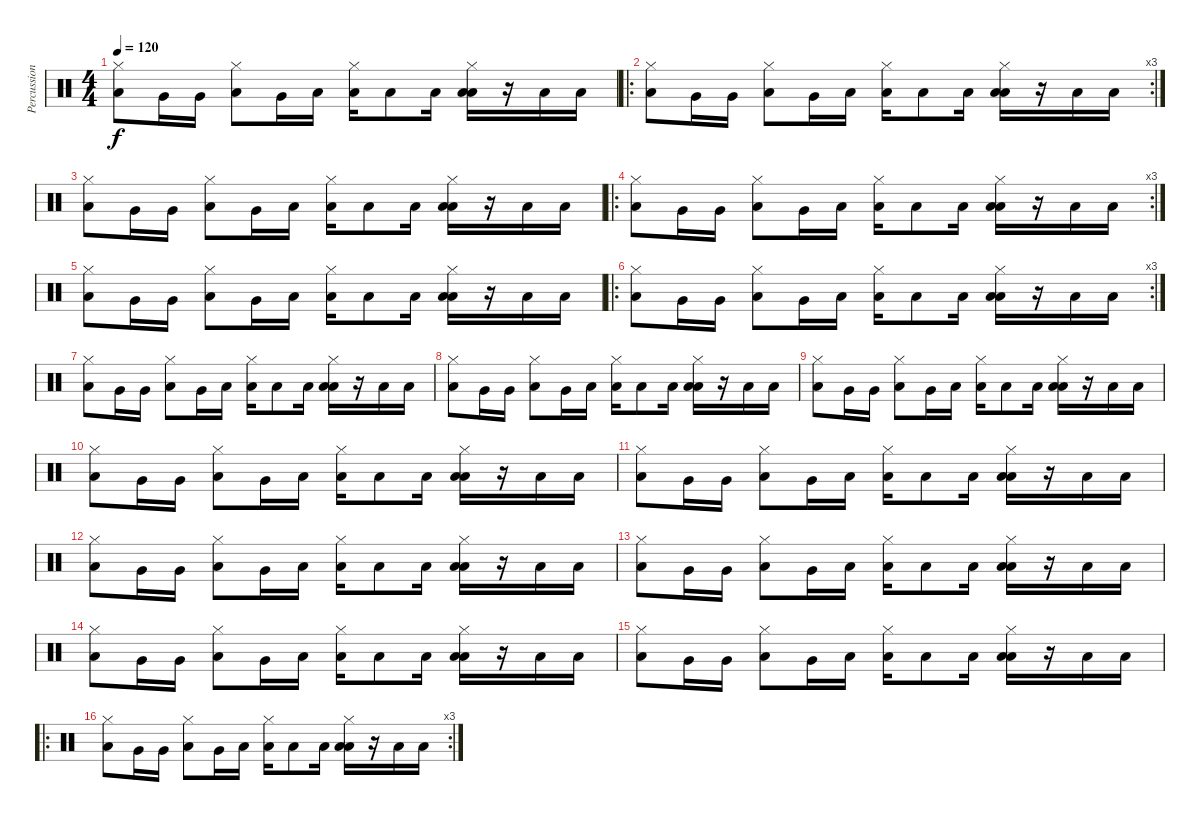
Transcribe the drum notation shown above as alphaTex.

\track ("Percussion" "Percussion") {instrument percussion}
\staff {score}
\articulation defaults
\ts (4 4)
\tempo 120
\clef neutral
\ks c
("Hi-Hat (closed)" "Low Floor Tom (hit)").8{dy f} "Very Low Tom (hit)".16 "Very Low Tom (hit)".16 ("Hi-Hat (closed)" "Low Floor Tom (hit)").8 "Very Low Tom (hit)".16 "Low Tom (hit)".16 ("Hi-Hat (closed)" "Low Floor Tom (hit)").16 "Low Tom (hit)".8 "Low Tom (hit)".16 ("Low Tom (hit)" "Hi-Hat (closed)" "Low Floor Tom (hit)").16 r.16 "Low Tom (hit)".16 "Low Tom (hit)".16 |
\ro
\rc 3
("Hi-Hat (closed)" "Low Floor Tom (hit)").8 "Very Low Tom (hit)".16 "Very Low Tom (hit)".16 ("Hi-Hat (closed)" "Low Floor Tom (hit)").8 "Very Low Tom (hit)".16 "Low Tom (hit)".16 ("Hi-Hat (closed)" "Low Floor Tom (hit)").16 "Low Tom (hit)".8 "Low Tom (hit)".16 ("Low Tom (hit)" "Hi-Hat (closed)" "Low Floor Tom (hit)").16 r.16 "Low Tom (hit)".16 "Low Tom (hit)".16 |
("Hi-Hat (closed)" "Low Floor Tom (hit)").8 "Very Low Tom (hit)".16 "Very Low Tom (hit)".16 ("Hi-Hat (closed)" "Low Floor Tom (hit)").8 "Very Low Tom (hit)".16 "Low Tom (hit)".16 ("Hi-Hat (closed)" "Low Floor Tom (hit)").16 "Low Tom (hit)".8 "Low Tom (hit)".16 ("Low Tom (hit)" "Hi-Hat (closed)" "Low Floor Tom (hit)").16 r.16 "Low Tom (hit)".16 "Low Tom (hit)".16 |
\ro
\rc 3
("Hi-Hat (closed)" "Low Floor Tom (hit)").8 "Very Low Tom (hit)".16 "Very Low Tom (hit)".16 ("Hi-Hat (closed)" "Low Floor Tom (hit)").8 "Very Low Tom (hit)".16 "Low Tom (hit)".16 ("Hi-Hat (closed)" "Low Floor Tom (hit)").16 "Low Tom (hit)".8 "Low Tom (hit)".16 ("Low Tom (hit)" "Hi-Hat (closed)" "Low Floor Tom (hit)").16 r.16 "Low Tom (hit)".16 "Low Tom (hit)".16 |
("Hi-Hat (closed)" "Low Floor Tom (hit)").8 "Very Low Tom (hit)".16 "Very Low Tom (hit)".16 ("Hi-Hat (closed)" "Low Floor Tom (hit)").8 "Very Low Tom (hit)".16 "Low Tom (hit)".16 ("Hi-Hat (closed)" "Low Floor Tom (hit)").16 "Low Tom (hit)".8 "Low Tom (hit)".16 ("Low Tom (hit)" "Hi-Hat (closed)" "Low Floor Tom (hit)").16 r.16 "Low Tom (hit)".16 "Low Tom (hit)".16 |
\ro
\rc 3
("Hi-Hat (closed)" "Low Floor Tom (hit)").8 "Very Low Tom (hit)".16 "Very Low Tom (hit)".16 ("Hi-Hat (closed)" "Low Floor Tom (hit)").8 "Very Low Tom (hit)".16 "Low Tom (hit)".16 ("Hi-Hat (closed)" "Low Floor Tom (hit)").16 "Low Tom (hit)".8 "Low Tom (hit)".16 ("Low Tom (hit)" "Hi-Hat (closed)" "Low Floor Tom (hit)").16 r.16 "Low Tom (hit)".16 "Low Tom (hit)".16 |
("Hi-Hat (closed)" "Low Floor Tom (hit)").8 "Very Low Tom (hit)".16 "Very Low Tom (hit)".16 ("Hi-Hat (closed)" "Low Floor Tom (hit)").8 "Very Low Tom (hit)".16 "Low Tom (hit)".16 ("Hi-Hat (closed)" "Low Floor Tom (hit)").16 "Low Tom (hit)".8 "Low Tom (hit)".16 ("Low Tom (hit)" "Hi-Hat (closed)" "Low Floor Tom (hit)").16 r.16 "Low Tom (hit)".16 "Low Tom (hit)".16 |
("Hi-Hat (closed)" "Low Floor Tom (hit)").8 "Very Low Tom (hit)".16 "Very Low Tom (hit)".16 ("Hi-Hat (closed)" "Low Floor Tom (hit)").8 "Very Low Tom (hit)".16 "Low Tom (hit)".16 ("Hi-Hat (closed)" "Low Floor Tom (hit)").16 "Low Tom (hit)".8 "Low Tom (hit)".16 ("Low Tom (hit)" "Hi-Hat (closed)" "Low Floor Tom (hit)").16 r.16 "Low Tom (hit)".16 "Low Tom (hit)".16 |
("Hi-Hat (closed)" "Low Floor Tom (hit)").8 "Very Low Tom (hit)".16 "Very Low Tom (hit)".16 ("Hi-Hat (closed)" "Low Floor Tom (hit)").8 "Very Low Tom (hit)".16 "Low Tom (hit)".16 ("Hi-Hat (closed)" "Low Floor Tom (hit)").16 "Low Tom (hit)".8 "Low Tom (hit)".16 ("Low Tom (hit)" "Hi-Hat (closed)" "Low Floor Tom (hit)").16 r.16 "Low Tom (hit)".16 "Low Tom (hit)".16 |
("Hi-Hat (closed)" "Low Floor Tom (hit)").8 "Very Low Tom (hit)".16 "Very Low Tom (hit)".16 ("Hi-Hat (closed)" "Low Floor Tom (hit)").8 "Very Low Tom (hit)".16 "Low Tom (hit)".16 ("Hi-Hat (closed)" "Low Floor Tom (hit)").16 "Low Tom (hit)".8 "Low Tom (hit)".16 ("Low Tom (hit)" "Hi-Hat (closed)" "Low Floor Tom (hit)").16 r.16 "Low Tom (hit)".16 "Low Tom (hit)".16 |
("Hi-Hat (closed)" "Low Floor Tom (hit)").8 "Very Low Tom (hit)".16 "Very Low Tom (hit)".16 ("Hi-Hat (closed)" "Low Floor Tom (hit)").8 "Very Low Tom (hit)".16 "Low Tom (hit)".16 ("Hi-Hat (closed)" "Low Floor Tom (hit)").16 "Low Tom (hit)".8 "Low Tom (hit)".16 ("Low Tom (hit)" "Hi-Hat (closed)" "Low Floor Tom (hit)").16 r.16 "Low Tom (hit)".16 "Low Tom (hit)".16 |
("Hi-Hat (closed)" "Low Floor Tom (hit)").8 "Very Low Tom (hit)".16 "Very Low Tom (hit)".16 ("Hi-Hat (closed)" "Low Floor Tom (hit)").8 "Very Low Tom (hit)".16 "Low Tom (hit)".16 ("Hi-Hat (closed)" "Low Floor Tom (hit)").16 "Low Tom (hit)".8 "Low Tom (hit)".16 ("Low Tom (hit)" "Hi-Hat (closed)" "Low Floor Tom (hit)").16 r.16 "Low Tom (hit)".16 "Low Tom (hit)".16 |
("Hi-Hat (closed)" "Low Floor Tom (hit)").8 "Very Low Tom (hit)".16 "Very Low Tom (hit)".16 ("Hi-Hat (closed)" "Low Floor Tom (hit)").8 "Very Low Tom (hit)".16 "Low Tom (hit)".16 ("Hi-Hat (closed)" "Low Floor Tom (hit)").16 "Low Tom (hit)".8 "Low Tom (hit)".16 ("Low Tom (hit)" "Hi-Hat (closed)" "Low Floor Tom (hit)").16 r.16 "Low Tom (hit)".16 "Low Tom (hit)".16 |
("Hi-Hat (closed)" "Low Floor Tom (hit)").8 "Very Low Tom (hit)".16 "Very Low Tom (hit)".16 ("Hi-Hat (closed)" "Low Floor Tom (hit)").8 "Very Low Tom (hit)".16 "Low Tom (hit)".16 ("Hi-Hat (closed)" "Low Floor Tom (hit)").16 "Low Tom (hit)".8 "Low Tom (hit)".16 ("Low Tom (hit)" "Hi-Hat (closed)" "Low Floor Tom (hit)").16 r.16 "Low Tom (hit)".16 "Low Tom (hit)".16 |
("Hi-Hat (closed)" "Low Floor Tom (hit)").8 "Very Low Tom (hit)".16 "Very Low Tom (hit)".16 ("Hi-Hat (closed)" "Low Floor Tom (hit)").8 "Very Low Tom (hit)".16 "Low Tom (hit)".16 ("Hi-Hat (closed)" "Low Floor Tom (hit)").16 "Low Tom (hit)".8 "Low Tom (hit)".16 ("Low Tom (hit)" "Hi-Hat (closed)" "Low Floor Tom (hit)").16 r.16 "Low Tom (hit)".16 "Low Tom (hit)".16 |
\ro
\rc 3
("Hi-Hat (closed)" "Low Floor Tom (hit)").8 "Very Low Tom (hit)".16 "Very Low Tom (hit)".16 ("Hi-Hat (closed)" "Low Floor Tom (hit)").8 "Very Low Tom (hit)".16 "Low Tom (hit)".16 ("Hi-Hat (closed)" "Low Floor Tom (hit)").16 "Low Tom (hit)".8 "Low Tom (hit)".16 ("Low Tom (hit)" "Hi-Hat (closed)" "Low Floor Tom (hit)").16 r.16 "Low Tom (hit)".16 "Low Tom (hit)".16
